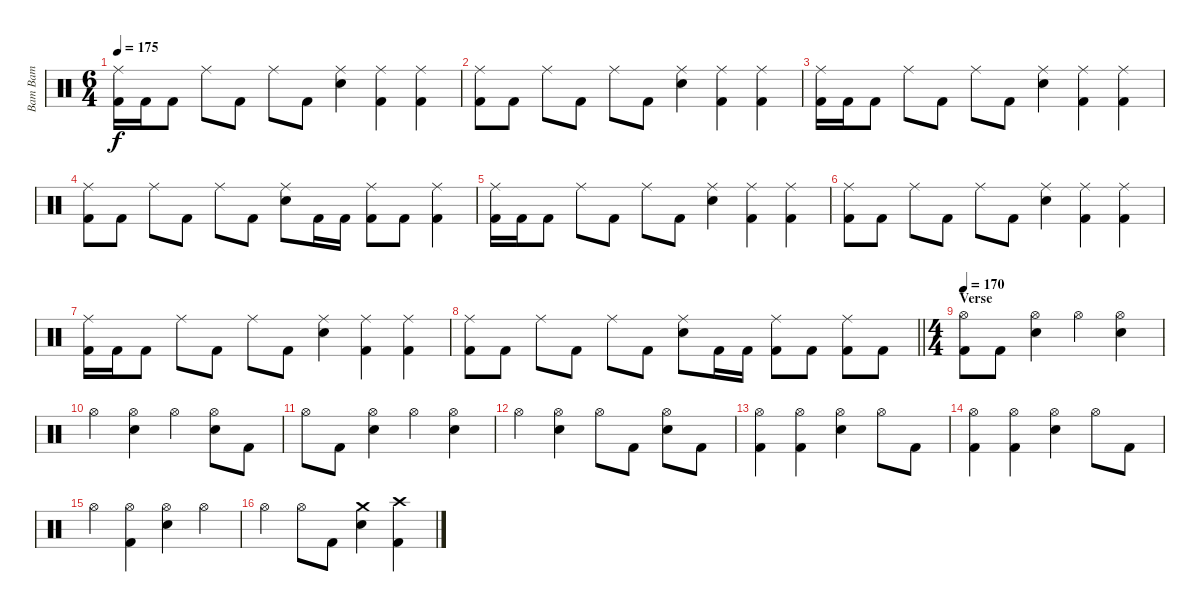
\track ("Bam Bam" "Bam Bam") {instrument percussion}
\staff {score}
\articulation defaults
\ts (6 4)
\tempo 175
\clef neutral
\ks c
("Ride (middle)" "Kick (hit) 2").16{dy f} "Kick (hit) 2".16 "Kick (hit) 2".8 "Ride (middle)".8 "Kick (hit) 2".8 "Ride (middle)".8 "Kick (hit) 2".8 ("Ride (middle)" "Electric Snare (hit)").4 ("Ride (middle)" "Kick (hit) 2").4 ("Ride (middle)" "Kick (hit) 2").4 |
("Ride (middle)" "Kick (hit) 2").8 "Kick (hit) 2".8 "Ride (middle)".8 "Kick (hit) 2".8 "Ride (middle)".8 "Kick (hit) 2".8 ("Ride (middle)" "Electric Snare (hit)").4 ("Ride (middle)" "Kick (hit) 2").4 ("Ride (middle)" "Kick (hit) 2").4 |
("Ride (middle)" "Kick (hit) 2").16 "Kick (hit) 2".16 "Kick (hit) 2".8 "Ride (middle)".8 "Kick (hit) 2".8 "Ride (middle)".8 "Kick (hit) 2".8 ("Ride (middle)" "Electric Snare (hit)").4 ("Ride (middle)" "Kick (hit) 2").4 ("Ride (middle)" "Kick (hit) 2").4 |
("Ride (middle)" "Kick (hit) 2").8 "Kick (hit) 2".8 "Ride (middle)".8 "Kick (hit) 2".8 "Ride (middle)".8 "Kick (hit) 2".8 ("Ride (middle)" "Electric Snare (hit)").8 "Kick (hit) 2".16 "Kick (hit) 2".16 ("Ride (middle)" "Kick (hit) 2").8 "Kick (hit) 2".8 ("Ride (middle)" "Kick (hit) 2").4 |
("Ride (middle)" "Kick (hit) 2").16 "Kick (hit) 2".16 "Kick (hit) 2".8 "Ride (middle)".8 "Kick (hit) 2".8 "Ride (middle)".8 "Kick (hit) 2".8 ("Ride (middle)" "Electric Snare (hit)").4 ("Ride (middle)" "Kick (hit) 2").4 ("Ride (middle)" "Kick (hit) 2").4 |
("Ride (middle)" "Kick (hit) 2").8 "Kick (hit) 2".8 "Ride (middle)".8 "Kick (hit) 2".8 "Ride (middle)".8 "Kick (hit) 2".8 ("Ride (middle)" "Electric Snare (hit)").4 ("Ride (middle)" "Kick (hit) 2").4 ("Ride (middle)" "Kick (hit) 2").4 |
("Ride (middle)" "Kick (hit) 2").16 "Kick (hit) 2".16 "Kick (hit) 2".8 "Ride (middle)".8 "Kick (hit) 2".8 "Ride (middle)".8 "Kick (hit) 2".8 ("Ride (middle)" "Electric Snare (hit)").4 ("Ride (middle)" "Kick (hit) 2").4 ("Ride (middle)" "Kick (hit) 2").4 |
\barLineRight lightlight
("Ride (middle)" "Kick (hit) 2").8 "Kick (hit) 2".8 "Ride (middle)".8 "Kick (hit) 2".8 "Ride (middle)".8 "Kick (hit) 2".8 ("Ride (middle)" "Electric Snare (hit)").8 "Kick (hit) 2".16 "Kick (hit) 2".16 ("Ride (middle)" "Kick (hit) 2").8 "Kick (hit) 2".8 ("Ride (middle)" "Kick (hit) 2").8 "Kick (hit) 2".8 |
\ts (4 4)
\section ("" "Verse")
\tempo 170
("Hi-Hat (open)" "Kick (hit) 2").8 "Kick (hit) 2".8 ("Hi-Hat (open)" "Electric Snare (hit)").4 "Hi-Hat (open)".4 ("Hi-Hat (open)" "Electric Snare (hit)").4 |
"Hi-Hat (open)".4 ("Hi-Hat (open)" "Electric Snare (hit)").4 "Hi-Hat (open)".4 ("Hi-Hat (open)" "Electric Snare (hit)").8 "Kick (hit) 2".8 |
"Hi-Hat (open)".8 "Kick (hit) 2".8 ("Hi-Hat (open)" "Electric Snare (hit)").4 "Hi-Hat (open)".4 ("Hi-Hat (open)" "Electric Snare (hit)").4 |
"Hi-Hat (open)".4 ("Hi-Hat (open)" "Electric Snare (hit)").4 "Hi-Hat (open)".8 "Kick (hit) 2".8 ("Hi-Hat (open)" "Electric Snare (hit)").8 "Kick (hit) 2".8 |
("Hi-Hat (open)" "Kick (hit) 2").4 ("Hi-Hat (open)" "Kick (hit) 2").4 ("Hi-Hat (open)" "Electric Snare (hit)").4 "Hi-Hat (open)".8 "Kick (hit) 2".8 |
("Hi-Hat (open)" "Kick (hit) 2").4 ("Hi-Hat (open)" "Kick (hit) 2").4 ("Hi-Hat (open)" "Electric Snare (hit)").4 "Hi-Hat (open)".8 "Kick (hit) 2".8 |
"Hi-Hat (open)".4 ("Hi-Hat (open)" "Kick (hit) 2").4 ("Hi-Hat (open)" "Electric Snare (hit)").4 "Hi-Hat (open)".4 |
"Hi-Hat (open)".4 "Hi-Hat (open)".8 "Kick (hit) 2".8 ("Crash medium (hit)" "Electric Snare (hit)").4 ("Crash high (hit)" "Kick (hit) 2").4
